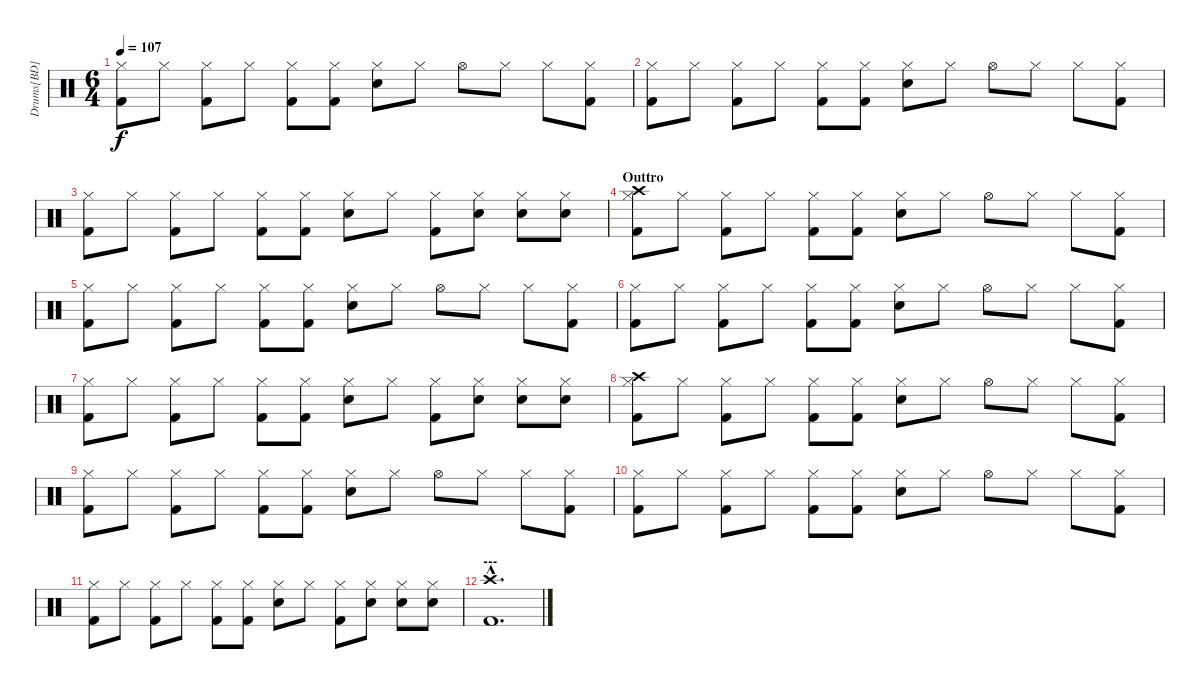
\track ("Drums[BD]" "Drums[BD]") {instrument percussion}
\staff {score}
\articulation defaults
\ts (6 4)
\tempo 107
\clef neutral
\ks c
("Hi-Hat (closed)" "Kick (hit) 2").8{dy f} "Hi-Hat (closed)".8 ("Hi-Hat (closed)" "Kick (hit) 2").8 "Hi-Hat (closed)".8 ("Hi-Hat (closed)" "Kick (hit) 2").8 ("Hi-Hat (closed)" "Kick (hit) 2").8 ("Hi-Hat (closed)" "Electric Snare (hit)").8 "Hi-Hat (closed)".8 "Hi-Hat (open)".8 "Hi-Hat (closed)".8 "Hi-Hat (closed)".8 ("Hi-Hat (closed)" "Kick (hit) 2").8 |
("Hi-Hat (closed)" "Kick (hit) 2").8 "Hi-Hat (closed)".8 ("Hi-Hat (closed)" "Kick (hit) 2").8 "Hi-Hat (closed)".8 ("Hi-Hat (closed)" "Kick (hit) 2").8 ("Hi-Hat (closed)" "Kick (hit) 2").8 ("Hi-Hat (closed)" "Electric Snare (hit)").8 "Hi-Hat (closed)".8 "Hi-Hat (open)".8 "Hi-Hat (closed)".8 "Hi-Hat (closed)".8 ("Hi-Hat (closed)" "Kick (hit) 2").8 |
("Hi-Hat (closed)" "Kick (hit) 2").8 "Hi-Hat (closed)".8 ("Hi-Hat (closed)" "Kick (hit) 2").8 "Hi-Hat (closed)".8 ("Hi-Hat (closed)" "Kick (hit) 2").8 ("Hi-Hat (closed)" "Kick (hit) 2").8 ("Hi-Hat (closed)" "Electric Snare (hit)").8 "Hi-Hat (closed)".8 ("Hi-Hat (closed)" "Kick (hit) 2").8 ("Hi-Hat (closed)" "Electric Snare (hit)").8 ("Hi-Hat (closed)" "Electric Snare (hit)").8 ("Hi-Hat (closed)" "Electric Snare (hit)").8 |
\section ("" "Outtro")
("Hi-Hat (closed)" "Kick (hit) 2" "Crash high (hit)").8 "Hi-Hat (closed)".8 ("Hi-Hat (closed)" "Kick (hit) 2").8 "Hi-Hat (closed)".8 ("Hi-Hat (closed)" "Kick (hit) 2").8 ("Hi-Hat (closed)" "Kick (hit) 2").8 ("Hi-Hat (closed)" "Electric Snare (hit)").8 "Hi-Hat (closed)".8 "Hi-Hat (open)".8 "Hi-Hat (closed)".8 "Hi-Hat (closed)".8 ("Hi-Hat (closed)" "Kick (hit) 2").8 |
("Hi-Hat (closed)" "Kick (hit) 2").8 "Hi-Hat (closed)".8 ("Hi-Hat (closed)" "Kick (hit) 2").8 "Hi-Hat (closed)".8 ("Hi-Hat (closed)" "Kick (hit) 2").8 ("Hi-Hat (closed)" "Kick (hit) 2").8 ("Hi-Hat (closed)" "Electric Snare (hit)").8 "Hi-Hat (closed)".8 "Hi-Hat (open)".8 "Hi-Hat (closed)".8 "Hi-Hat (closed)".8 ("Hi-Hat (closed)" "Kick (hit) 2").8 |
("Hi-Hat (closed)" "Kick (hit) 2").8 "Hi-Hat (closed)".8 ("Hi-Hat (closed)" "Kick (hit) 2").8 "Hi-Hat (closed)".8 ("Hi-Hat (closed)" "Kick (hit) 2").8 ("Hi-Hat (closed)" "Kick (hit) 2").8 ("Hi-Hat (closed)" "Electric Snare (hit)").8 "Hi-Hat (closed)".8 "Hi-Hat (open)".8 "Hi-Hat (closed)".8 "Hi-Hat (closed)".8 ("Hi-Hat (closed)" "Kick (hit) 2").8 |
("Hi-Hat (closed)" "Kick (hit) 2").8 "Hi-Hat (closed)".8 ("Hi-Hat (closed)" "Kick (hit) 2").8 "Hi-Hat (closed)".8 ("Hi-Hat (closed)" "Kick (hit) 2").8 ("Hi-Hat (closed)" "Kick (hit) 2").8 ("Hi-Hat (closed)" "Electric Snare (hit)").8 "Hi-Hat (closed)".8 ("Hi-Hat (closed)" "Kick (hit) 2").8 ("Hi-Hat (closed)" "Electric Snare (hit)").8 ("Hi-Hat (closed)" "Electric Snare (hit)").8 ("Hi-Hat (closed)" "Electric Snare (hit)").8 |
("Hi-Hat (closed)" "Kick (hit) 2" "Crash high (hit)").8 "Hi-Hat (closed)".8 ("Hi-Hat (closed)" "Kick (hit) 2").8 "Hi-Hat (closed)".8 ("Hi-Hat (closed)" "Kick (hit) 2").8 ("Hi-Hat (closed)" "Kick (hit) 2").8 ("Hi-Hat (closed)" "Electric Snare (hit)").8 "Hi-Hat (closed)".8 "Hi-Hat (open)".8 "Hi-Hat (closed)".8 "Hi-Hat (closed)".8 ("Hi-Hat (closed)" "Kick (hit) 2").8 |
("Hi-Hat (closed)" "Kick (hit) 2").8 "Hi-Hat (closed)".8 ("Hi-Hat (closed)" "Kick (hit) 2").8 "Hi-Hat (closed)".8 ("Hi-Hat (closed)" "Kick (hit) 2").8 ("Hi-Hat (closed)" "Kick (hit) 2").8 ("Hi-Hat (closed)" "Electric Snare (hit)").8 "Hi-Hat (closed)".8 "Hi-Hat (open)".8 "Hi-Hat (closed)".8 "Hi-Hat (closed)".8 ("Hi-Hat (closed)" "Kick (hit) 2").8 |
("Hi-Hat (closed)" "Kick (hit) 2").8 "Hi-Hat (closed)".8 ("Hi-Hat (closed)" "Kick (hit) 2").8 "Hi-Hat (closed)".8 ("Hi-Hat (closed)" "Kick (hit) 2").8 ("Hi-Hat (closed)" "Kick (hit) 2").8 ("Hi-Hat (closed)" "Electric Snare (hit)").8 "Hi-Hat (closed)".8 "Hi-Hat (open)".8 "Hi-Hat (closed)".8 "Hi-Hat (closed)".8 ("Hi-Hat (closed)" "Kick (hit) 2").8 |
("Hi-Hat (closed)" "Kick (hit) 2").8 "Hi-Hat (closed)".8 ("Hi-Hat (closed)" "Kick (hit) 2").8 "Hi-Hat (closed)".8 ("Hi-Hat (closed)" "Kick (hit) 2").8 ("Hi-Hat (closed)" "Kick (hit) 2").8 ("Hi-Hat (closed)" "Electric Snare (hit)").8 "Hi-Hat (closed)".8 ("Hi-Hat (closed)" "Kick (hit) 2").8 ("Hi-Hat (closed)" "Electric Snare (hit)").8 ("Hi-Hat (closed)" "Electric Snare (hit)").8 ("Hi-Hat (closed)" "Electric Snare (hit)").8 |
\section ("" "---")
("Crash high (hit)"{hac} "Kick (hit) 2"{hac}).1{d}
